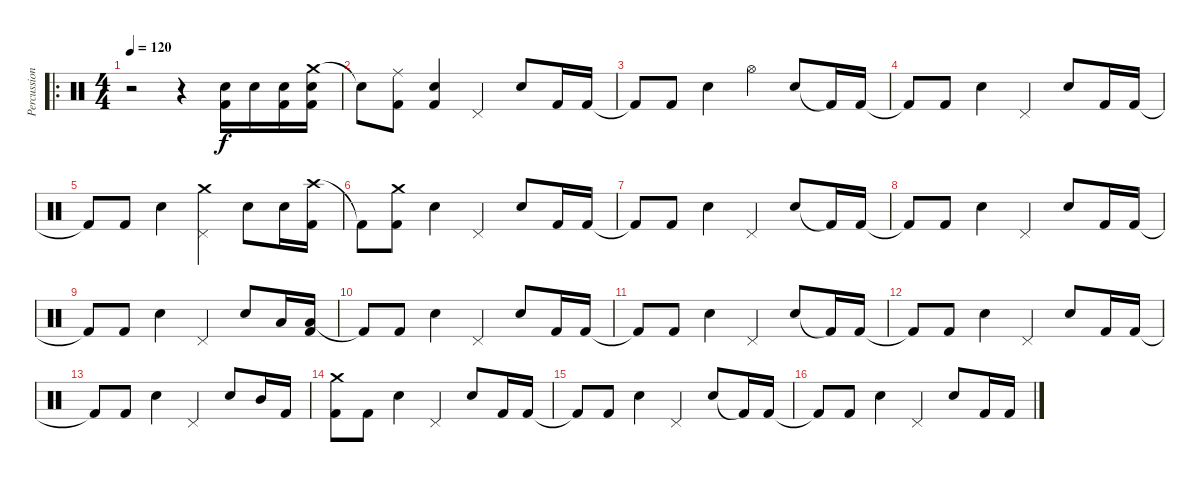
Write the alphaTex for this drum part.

\track ("Percussioni" "Percussion") {instrument percussion}
\staff {score}
\articulation defaults
\ro
\ts (4 4)
\tempo 120
\clef neutral
\ks c
r.2{dy f} r.4 ("Kick (hit) 2" "Snare (hit) 2").16 "Snare (hit) 2".16 ("Kick (hit) 2" "Snare (hit) 2").16 ("Crash medium (hit)" "Kick (hit) 2" "Snare (hit) 2").16 |
"Snare (hit)"{t}.8 ("Ride (middle)" "Kick (hit) 2").8 ("Electric Snare (hit)" "Kick (hit) 2").4 "Pedal Hi-Hat (hit)".4 "Electric Snare (hit)".8 "Kick (hit) 2".16 "Kick (hit) 2".16 |
"Kick (hit) 2"{t}.8 "Kick (hit) 2".8 "Electric Snare (hit)".4 "Hi-Hat (open)".4 "Electric Snare (hit)".8 "Kick (hit) 2"{t}.16 "Kick (hit) 2".16 |
"Kick (hit) 2"{t}.8 "Kick (hit) 2".8 "Electric Snare (hit)".4 "Pedal Hi-Hat (hit)".4 "Electric Snare (hit)".8 "Kick (hit) 2".16 "Kick (hit) 2".16 |
"Kick (hit) 2"{t}.8 "Kick (hit) 2".8 "Electric Snare (hit)".4 ("Crash medium (hit)" "Pedal Hi-Hat (hit)").4 "Electric Snare (hit)".8 "Snare (hit) 2".16 ("Crash high (hit)" "Kick (hit) 2").16 |
"Kick (hit) 2"{t}.8 ("Crash medium (hit)" "Kick (hit) 2").8 "Electric Snare (hit)".4 "Pedal Hi-Hat (hit)".4 "Electric Snare (hit)".8 "Kick (hit) 2".16 "Kick (hit) 2".16 |
"Kick (hit) 2"{t}.8 "Kick (hit) 2".8 "Electric Snare (hit)".4 "Pedal Hi-Hat (hit)".4 "Electric Snare (hit)".8 "Kick (hit) 2"{t}.16 "Kick (hit) 2".16 |
"Kick (hit) 2"{t}.8 "Kick (hit) 2".8 "Electric Snare (hit)".4 "Pedal Hi-Hat (hit)".4 "Electric Snare (hit)".8 "Kick (hit) 2".16 "Kick (hit) 2".16 |
"Kick (hit) 2"{t}.8 "Kick (hit) 2".8 "Electric Snare (hit)".4 "Pedal Hi-Hat (hit)".4 "Electric Snare (hit)".8 "Low Tom (hit)".16 ("Low Tom (hit)" "Kick (hit) 2").16 |
"Kick (hit) 2"{t}.8 "Kick (hit) 2".8 "Electric Snare (hit)".4 "Pedal Hi-Hat (hit)".4 "Electric Snare (hit)".8 "Kick (hit) 2".16 "Kick (hit) 2".16 |
"Kick (hit) 2"{t}.8 "Kick (hit) 2".8 "Electric Snare (hit)".4 "Pedal Hi-Hat (hit)".4 "Electric Snare (hit)".8 "Kick (hit) 2"{t}.16 "Kick (hit) 2".16 |
"Kick (hit) 2"{t}.8 "Kick (hit) 2".8 "Electric Snare (hit)".4 "Pedal Hi-Hat (hit)".4 "Electric Snare (hit)".8 "Kick (hit) 2".16 "Kick (hit) 2".16 |
"Kick (hit) 2"{t}.8 "Kick (hit) 2".8 "Electric Snare (hit)".4 "Pedal Hi-Hat (hit)".4 "Electric Snare (hit)".8 "Mid Tom (hit)".16 "Kick (hit) 2".16 |
("Crash medium (hit)" "Kick (hit) 2").8 "Kick (hit) 2".8 "Electric Snare (hit)".4 "Pedal Hi-Hat (hit)".4 "Electric Snare (hit)".8 "Kick (hit) 2".16 "Kick (hit) 2".16 |
"Kick (hit) 2"{t}.8 "Kick (hit) 2".8 "Electric Snare (hit)".4 "Pedal Hi-Hat (hit)".4 "Electric Snare (hit)".8 "Kick (hit) 2"{t}.16 "Kick (hit) 2".16 |
"Kick (hit) 2"{t}.8 "Kick (hit) 2".8 "Electric Snare (hit)".4 "Pedal Hi-Hat (hit)".4 "Electric Snare (hit)".8 "Kick (hit) 2".16 "Kick (hit) 2".16
